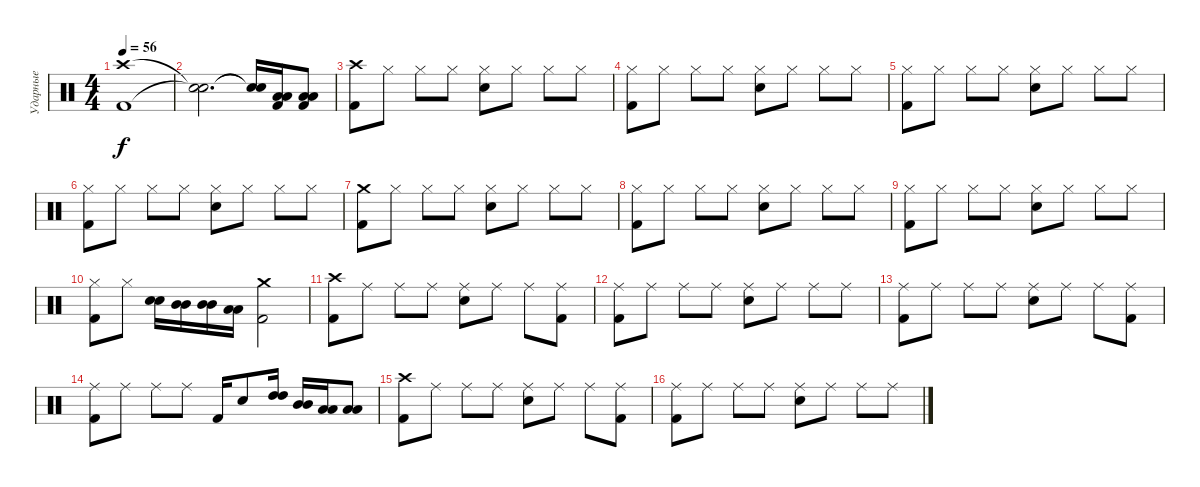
\track ("Ударные" "Ударные") {instrument percussion}
\staff {score}
\articulation defaults
\ts (4 4)
\tempo 56
\clef neutral
\ks c
("Crash high (hit)" "Kick (hit) 2").1{dy f} |
("Snare (hit)"{t} "Snare (hit)"{t}).2{d} ("Snare (hit)"{t} "Snare (hit)"{t}).16 ("Low Tom (hit)" "Low Tom (hit)" "Kick (hit) 2").16 ("Low Tom (hit)" "Low Tom (hit)" "Kick (hit) 2").8 |
("Crash high (hit)" "Kick (hit) 2").8 "Hi-Hat (closed)".8 "Hi-Hat (closed)".8 "Hi-Hat (closed)".8 ("Hi-Hat (closed)" "Snare (hit) 2").8 "Hi-Hat (closed)".8 "Hi-Hat (closed)".8 "Hi-Hat (closed)".8 |
("Hi-Hat (closed)" "Kick (hit) 2").8 "Hi-Hat (closed)".8 "Hi-Hat (closed)".8 "Hi-Hat (closed)".8 ("Hi-Hat (closed)" "Snare (hit) 2").8 "Hi-Hat (closed)".8 "Hi-Hat (closed)".8 "Hi-Hat (closed)".8 |
("Hi-Hat (closed)" "Kick (hit) 2").8 "Hi-Hat (closed)".8 "Hi-Hat (closed)".8 "Hi-Hat (closed)".8 ("Hi-Hat (closed)" "Snare (hit) 2").8 "Hi-Hat (closed)".8 "Hi-Hat (closed)".8 "Hi-Hat (closed)".8 |
("Hi-Hat (closed)" "Kick (hit) 2").8 "Hi-Hat (closed)".8 "Hi-Hat (closed)".8 "Hi-Hat (closed)".8 ("Hi-Hat (closed)" "Snare (hit) 2").8 "Hi-Hat (closed)".8 "Hi-Hat (closed)".8 "Hi-Hat (closed)".8 |
("Crash medium (hit)" "Kick (hit) 2").8 "Hi-Hat (closed)".8 "Hi-Hat (closed)".8 "Hi-Hat (closed)".8 ("Hi-Hat (closed)" "Snare (hit) 2").8 "Hi-Hat (closed)".8 "Hi-Hat (closed)".8 "Hi-Hat (closed)".8 |
("Hi-Hat (closed)" "Kick (hit) 2").8 "Hi-Hat (closed)".8 "Hi-Hat (closed)".8 "Hi-Hat (closed)".8 ("Hi-Hat (closed)" "Snare (hit) 2").8 "Hi-Hat (closed)".8 "Hi-Hat (closed)".8 "Hi-Hat (closed)".8 |
("Hi-Hat (closed)" "Kick (hit) 2").8 "Hi-Hat (closed)".8 "Hi-Hat (closed)".8 "Hi-Hat (closed)".8 ("Hi-Hat (closed)" "Snare (hit) 2").8 "Hi-Hat (closed)".8 "Hi-Hat (closed)".8 "Hi-Hat (closed)".8 |
("Hi-Hat (closed)" "Kick (hit) 2").8 "Hi-Hat (closed)".8 ("Snare (hit) 2" "Snare (hit) 2").16 ("Mid Tom (hit)" "Mid Tom (hit)").16 ("Mid Tom (hit)" "Mid Tom (hit)").16 ("Low Tom (hit)" "Low Tom (hit)").16 ("Crash medium (hit)" "Kick (hit) 2").2 |
("Crash high (hit)" "Kick (hit) 2").8 "Ride (middle)".8 "Ride (middle)".8 "Ride (middle)".8 ("Ride (middle)" "Snare (hit) 2").8 "Ride (middle)".8 "Ride (middle)".8 ("Ride (middle)" "Kick (hit) 2").8 |
("Ride (middle)" "Kick (hit) 2").8 "Ride (middle)".8 "Ride (middle)".8 "Ride (middle)".8 ("Ride (middle)" "Snare (hit) 2").8 "Ride (middle)".8 "Ride (middle)".8 "Ride (middle)".8 |
("Ride (middle)" "Kick (hit) 2").8 "Ride (middle)".8 "Ride (middle)".8 "Ride (middle)".8 ("Ride (middle)" "Snare (hit) 2").8 "Ride (middle)".8 "Ride (middle)".8 ("Ride (middle)" "Kick (hit) 2").8 |
("Ride (middle)" "Kick (hit) 2").8 "Ride (middle)".8 "Ride (middle)".8 "Ride (middle)".8 "Kick (hit) 2".16 "Snare (hit) 2".8 ("High Tom (hit)" "High Tom (hit)").16 ("Mid Tom (hit)" "Mid Tom (hit)").16 ("Low Tom (hit)" "Low Tom (hit)").16 ("Low Tom (hit)" "Low Tom (hit)").8 |
("Crash high (hit)" "Kick (hit) 2").8 "Ride (middle)".8 "Ride (middle)".8 "Ride (middle)".8 ("Ride (middle)" "Snare (hit) 2").8 "Ride (middle)".8 "Ride (middle)".8 ("Ride (middle)" "Kick (hit) 2").8 |
("Ride (middle)" "Kick (hit) 2").8 "Ride (middle)".8 "Ride (middle)".8 "Ride (middle)".8 ("Ride (middle)" "Snare (hit) 2").8 "Ride (middle)".8 "Ride (middle)".8 "Ride (middle)".8
